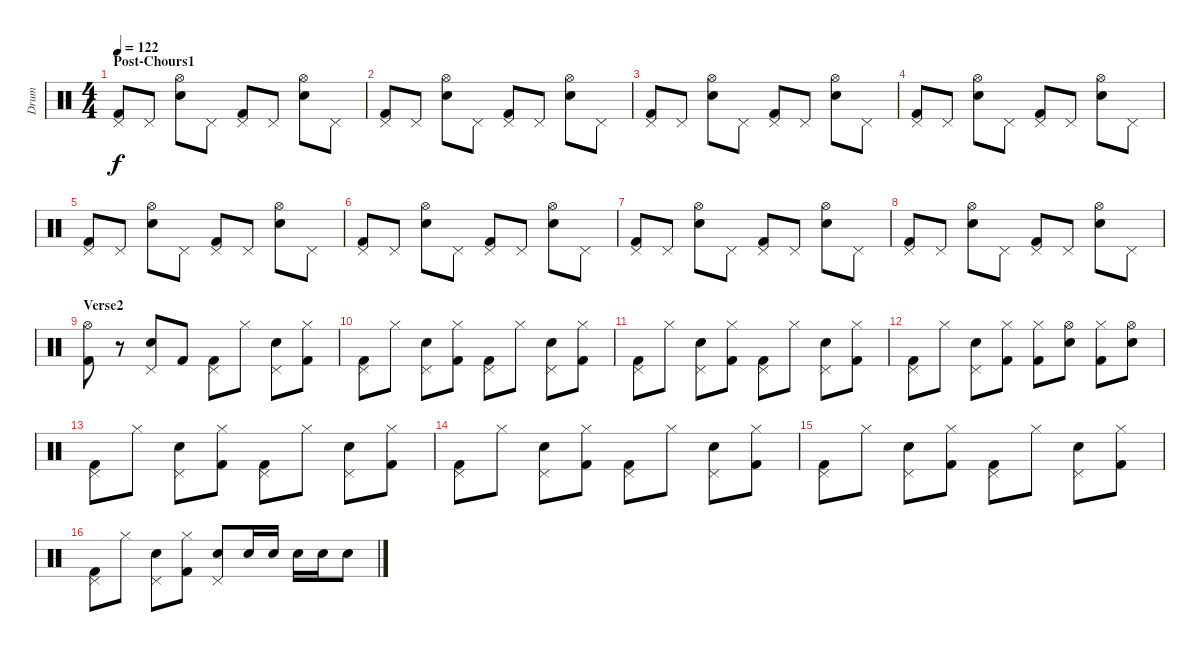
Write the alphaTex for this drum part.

\track ("Drum" "Drum") {instrument percussion}
\staff {score}
\articulation defaults
\ts (4 4)
\section ("" "Post-Chours1")
\tempo 122
\clef neutral
\ks c
("Pedal Hi-Hat (hit)" "Kick (hit) 2").8{dy f} "Pedal Hi-Hat (hit)".8 ("Hi-Hat (open)" "Electric Snare (hit)").8 "Pedal Hi-Hat (hit)".8 ("Pedal Hi-Hat (hit)" "Kick (hit) 2").8 "Pedal Hi-Hat (hit)".8 ("Hi-Hat (open)" "Electric Snare (hit)").8 "Pedal Hi-Hat (hit)".8 |
("Pedal Hi-Hat (hit)" "Kick (hit) 2").8 "Pedal Hi-Hat (hit)".8 ("Hi-Hat (open)" "Electric Snare (hit)").8 "Pedal Hi-Hat (hit)".8 ("Pedal Hi-Hat (hit)" "Kick (hit) 2").8 "Pedal Hi-Hat (hit)".8 ("Hi-Hat (open)" "Electric Snare (hit)").8 "Pedal Hi-Hat (hit)".8 |
("Pedal Hi-Hat (hit)" "Kick (hit) 2").8 "Pedal Hi-Hat (hit)".8 ("Hi-Hat (open)" "Electric Snare (hit)").8 "Pedal Hi-Hat (hit)".8 ("Pedal Hi-Hat (hit)" "Kick (hit) 2").8 "Pedal Hi-Hat (hit)".8 ("Hi-Hat (open)" "Electric Snare (hit)").8 "Pedal Hi-Hat (hit)".8 |
("Pedal Hi-Hat (hit)" "Kick (hit) 2").8 "Pedal Hi-Hat (hit)".8 ("Hi-Hat (open)" "Electric Snare (hit)").8 "Pedal Hi-Hat (hit)".8 ("Pedal Hi-Hat (hit)" "Kick (hit) 2").8 "Pedal Hi-Hat (hit)".8 ("Hi-Hat (open)" "Electric Snare (hit)").8 "Pedal Hi-Hat (hit)".8 |
("Pedal Hi-Hat (hit)" "Kick (hit) 2").8 "Pedal Hi-Hat (hit)".8 ("Hi-Hat (open)" "Electric Snare (hit)").8 "Pedal Hi-Hat (hit)".8 ("Pedal Hi-Hat (hit)" "Kick (hit) 2").8 "Pedal Hi-Hat (hit)".8 ("Hi-Hat (open)" "Electric Snare (hit)").8 "Pedal Hi-Hat (hit)".8 |
("Pedal Hi-Hat (hit)" "Kick (hit) 2").8 "Pedal Hi-Hat (hit)".8 ("Hi-Hat (open)" "Electric Snare (hit)").8 "Pedal Hi-Hat (hit)".8 ("Pedal Hi-Hat (hit)" "Kick (hit) 2").8 "Pedal Hi-Hat (hit)".8 ("Hi-Hat (open)" "Electric Snare (hit)").8 "Pedal Hi-Hat (hit)".8 |
("Pedal Hi-Hat (hit)" "Kick (hit) 2").8 "Pedal Hi-Hat (hit)".8 ("Hi-Hat (open)" "Electric Snare (hit)").8 "Pedal Hi-Hat (hit)".8 ("Pedal Hi-Hat (hit)" "Kick (hit) 2").8 "Pedal Hi-Hat (hit)".8 ("Hi-Hat (open)" "Electric Snare (hit)").8 "Pedal Hi-Hat (hit)".8 |
("Pedal Hi-Hat (hit)" "Kick (hit) 2").8 "Pedal Hi-Hat (hit)".8 ("Hi-Hat (open)" "Electric Snare (hit)").8 "Pedal Hi-Hat (hit)".8 ("Pedal Hi-Hat (hit)" "Kick (hit) 2").8 "Pedal Hi-Hat (hit)".8 ("Hi-Hat (open)" "Electric Snare (hit)").8 "Pedal Hi-Hat (hit)".8 |
\section ("" "Verse2")
("Hi-Hat (open)" "Kick (hit) 2").8 r.8 ("Pedal Hi-Hat (hit)" "Electric Snare (hit)").8 "Kick (hit) 2".8 ("Pedal Hi-Hat (hit)" "Kick (hit) 2").8 "Hi-Hat (closed)".8 ("Pedal Hi-Hat (hit)" "Electric Snare (hit)").8 ("Hi-Hat (closed)" "Kick (hit) 2").8 |
("Pedal Hi-Hat (hit)" "Kick (hit) 2").8 "Hi-Hat (closed)".8 ("Pedal Hi-Hat (hit)" "Electric Snare (hit)").8 ("Hi-Hat (closed)" "Kick (hit) 2").8 ("Pedal Hi-Hat (hit)" "Kick (hit) 2").8 "Hi-Hat (closed)".8 ("Pedal Hi-Hat (hit)" "Electric Snare (hit)").8 ("Hi-Hat (closed)" "Kick (hit) 2").8 |
("Pedal Hi-Hat (hit)" "Kick (hit) 2").8 "Hi-Hat (closed)".8 ("Pedal Hi-Hat (hit)" "Electric Snare (hit)").8 ("Hi-Hat (closed)" "Kick (hit) 2").8 ("Pedal Hi-Hat (hit)" "Kick (hit) 2").8 "Hi-Hat (closed)".8 ("Pedal Hi-Hat (hit)" "Electric Snare (hit)").8 ("Hi-Hat (closed)" "Kick (hit) 2").8 |
("Pedal Hi-Hat (hit)" "Kick (hit) 2").8 "Hi-Hat (closed)".8 ("Pedal Hi-Hat (hit)" "Electric Snare (hit)").8 ("Hi-Hat (closed)" "Kick (hit) 2").8 ("Hi-Hat (closed)" "Kick (hit) 2").8 ("Hi-Hat (open)" "Electric Snare (hit)").8 ("Hi-Hat (closed)" "Kick (hit) 2").8 ("Hi-Hat (open)" "Electric Snare (hit)").8 |
("Pedal Hi-Hat (hit)" "Kick (hit) 2").8 "Hi-Hat (closed)".8 ("Pedal Hi-Hat (hit)" "Electric Snare (hit)").8 ("Hi-Hat (closed)" "Kick (hit) 2").8 ("Pedal Hi-Hat (hit)" "Kick (hit) 2").8 "Hi-Hat (closed)".8 ("Pedal Hi-Hat (hit)" "Electric Snare (hit)").8 ("Hi-Hat (closed)" "Kick (hit) 2").8 |
("Pedal Hi-Hat (hit)" "Kick (hit) 2").8 "Hi-Hat (closed)".8 ("Pedal Hi-Hat (hit)" "Electric Snare (hit)").8 ("Hi-Hat (closed)" "Kick (hit) 2").8 ("Pedal Hi-Hat (hit)" "Kick (hit) 2").8 "Hi-Hat (closed)".8 ("Pedal Hi-Hat (hit)" "Electric Snare (hit)").8 ("Hi-Hat (closed)" "Kick (hit) 2").8 |
("Pedal Hi-Hat (hit)" "Kick (hit) 2").8 "Hi-Hat (closed)".8 ("Pedal Hi-Hat (hit)" "Electric Snare (hit)").8 ("Hi-Hat (closed)" "Kick (hit) 2").8 ("Pedal Hi-Hat (hit)" "Kick (hit) 2").8 "Hi-Hat (closed)".8 ("Pedal Hi-Hat (hit)" "Electric Snare (hit)").8 ("Hi-Hat (closed)" "Kick (hit) 2").8 |
("Pedal Hi-Hat (hit)" "Kick (hit) 2").8 "Hi-Hat (closed)".8 ("Pedal Hi-Hat (hit)" "Electric Snare (hit)").8 ("Hi-Hat (closed)" "Kick (hit) 2").8 ("Pedal Hi-Hat (hit)" "Electric Snare (hit)").8 "Electric Snare (hit)".16 "Electric Snare (hit)".16 "Electric Snare (hit)".16 "Electric Snare (hit)".16 "Electric Snare (hit)".8
